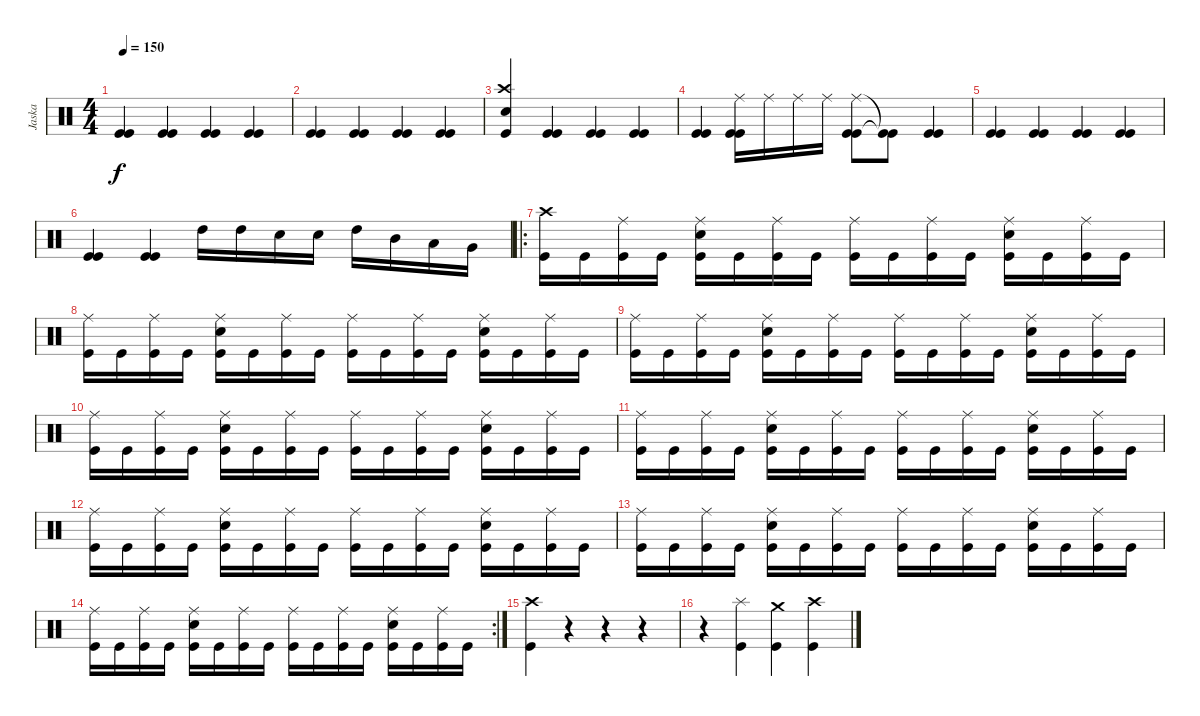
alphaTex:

\track ("Jaska" "Jaska") {instrument percussion}
\staff {score}
\articulation defaults
\ts (4 4)
\tempo 150
\clef neutral
\ks c
("Kick (hit)" "Kick (hit)").4{dy f} ("Kick (hit)" "Kick (hit)").4 ("Kick (hit)" "Kick (hit)").4 ("Kick (hit)" "Kick (hit)").4 |
("Kick (hit)" "Kick (hit)").4 ("Kick (hit)" "Kick (hit)").4 ("Kick (hit)" "Kick (hit)").4 ("Kick (hit)" "Kick (hit)").4 |
("Crash high (hit)" "Snare (hit) 2" "Kick (hit)").4 ("Kick (hit)" "Kick (hit)").4 ("Kick (hit)" "Kick (hit)").4 ("Kick (hit)" "Kick (hit)").4 |
("Kick (hit)" "Kick (hit)").4 ("Ride (middle)" "Kick (hit)" "Kick (hit)").16 "Ride (middle)".16 "Ride (middle)".16 "Ride (middle)".16 ("Ride (middle)" "Kick (hit)" "Kick (hit)").8 ("Kick (hit)"{t} "Kick (hit)"{t}).8 ("Kick (hit)" "Kick (hit)").4 |
("Kick (hit)" "Kick (hit)").4 ("Kick (hit)" "Kick (hit)").4 ("Kick (hit)" "Kick (hit)").4 ("Kick (hit)" "Kick (hit)").4 |
("Kick (hit)" "Kick (hit)").4 ("Kick (hit)" "Kick (hit)").4 "High Tom (hit)".16 "High Tom (hit)".16 "Snare (hit) 2".16 "Snare (hit) 2".16 "High Tom (hit)".16 "Mid Tom (hit)".16 "Low Tom (hit)".16 "Very Low Tom (hit)".16 |
\ro
("Crash high (hit)" "Kick (hit)").16 "Kick (hit)".16 ("Ride (middle)" "Kick (hit)").16 "Kick (hit)".16 ("Ride (middle)" "Snare (hit) 2" "Kick (hit)").16 "Kick (hit)".16 ("Ride (middle)" "Kick (hit)").16 "Kick (hit)".16 ("Ride (middle)" "Kick (hit)").16 "Kick (hit)".16 ("Ride (middle)" "Kick (hit)").16 "Kick (hit)".16 ("Ride (middle)" "Snare (hit) 2" "Kick (hit)").16 "Kick (hit)".16 ("Ride (middle)" "Kick (hit)").16 "Kick (hit)".16 |
("Ride (middle)" "Kick (hit)").16 "Kick (hit)".16 ("Ride (middle)" "Kick (hit)").16 "Kick (hit)".16 ("Ride (middle)" "Snare (hit) 2" "Kick (hit)").16 "Kick (hit)".16 ("Ride (middle)" "Kick (hit)").16 "Kick (hit)".16 ("Ride (middle)" "Kick (hit)").16 "Kick (hit)".16 ("Ride (middle)" "Kick (hit)").16 "Kick (hit)".16 ("Ride (middle)" "Snare (hit) 2" "Kick (hit)").16 "Kick (hit)".16 ("Ride (middle)" "Kick (hit)").16 "Kick (hit)".16 |
("Ride (middle)" "Kick (hit)").16 "Kick (hit)".16 ("Ride (middle)" "Kick (hit)").16 "Kick (hit)".16 ("Ride (middle)" "Snare (hit) 2" "Kick (hit)").16 "Kick (hit)".16 ("Ride (middle)" "Kick (hit)").16 "Kick (hit)".16 ("Ride (middle)" "Kick (hit)").16 "Kick (hit)".16 ("Ride (middle)" "Kick (hit)").16 "Kick (hit)".16 ("Ride (middle)" "Snare (hit) 2" "Kick (hit)").16 "Kick (hit)".16 ("Ride (middle)" "Kick (hit)").16 "Kick (hit)".16 |
("Ride (middle)" "Kick (hit)").16 "Kick (hit)".16 ("Ride (middle)" "Kick (hit)").16 "Kick (hit)".16 ("Ride (middle)" "Snare (hit) 2" "Kick (hit)").16 "Kick (hit)".16 ("Ride (middle)" "Kick (hit)").16 "Kick (hit)".16 ("Ride (middle)" "Kick (hit)").16 "Kick (hit)".16 ("Ride (middle)" "Kick (hit)").16 "Kick (hit)".16 ("Ride (middle)" "Snare (hit) 2" "Kick (hit)").16 "Kick (hit)".16 ("Ride (middle)" "Kick (hit)").16 "Kick (hit)".16 |
("Ride (middle)" "Kick (hit)").16 "Kick (hit)".16 ("Ride (middle)" "Kick (hit)").16 "Kick (hit)".16 ("Ride (middle)" "Snare (hit) 2" "Kick (hit)").16 "Kick (hit)".16 ("Ride (middle)" "Kick (hit)").16 "Kick (hit)".16 ("Ride (middle)" "Kick (hit)").16 "Kick (hit)".16 ("Ride (middle)" "Kick (hit)").16 "Kick (hit)".16 ("Ride (middle)" "Snare (hit) 2" "Kick (hit)").16 "Kick (hit)".16 ("Ride (middle)" "Kick (hit)").16 "Kick (hit)".16 |
("Ride (middle)" "Kick (hit)").16 "Kick (hit)".16 ("Ride (middle)" "Kick (hit)").16 "Kick (hit)".16 ("Ride (middle)" "Snare (hit) 2" "Kick (hit)").16 "Kick (hit)".16 ("Ride (middle)" "Kick (hit)").16 "Kick (hit)".16 ("Ride (middle)" "Kick (hit)").16 "Kick (hit)".16 ("Ride (middle)" "Kick (hit)").16 "Kick (hit)".16 ("Ride (middle)" "Snare (hit) 2" "Kick (hit)").16 "Kick (hit)".16 ("Ride (middle)" "Kick (hit)").16 "Kick (hit)".16 |
("Ride (middle)" "Kick (hit)").16 "Kick (hit)".16 ("Ride (middle)" "Kick (hit)").16 "Kick (hit)".16 ("Ride (middle)" "Snare (hit) 2" "Kick (hit)").16 "Kick (hit)".16 ("Ride (middle)" "Kick (hit)").16 "Kick (hit)".16 ("Ride (middle)" "Kick (hit)").16 "Kick (hit)".16 ("Ride (middle)" "Kick (hit)").16 "Kick (hit)".16 ("Ride (middle)" "Snare (hit) 2" "Kick (hit)").16 "Kick (hit)".16 ("Ride (middle)" "Kick (hit)").16 "Kick (hit)".16 |
\rc 2
("Ride (middle)" "Kick (hit)").16 "Kick (hit)".16 ("Ride (middle)" "Kick (hit)").16 "Kick (hit)".16 ("Ride (middle)" "Snare (hit) 2" "Kick (hit)").16 "Kick (hit)".16 ("Ride (middle)" "Kick (hit)").16 "Kick (hit)".16 ("Ride (middle)" "Kick (hit)").16 "Kick (hit)".16 ("Ride (middle)" "Kick (hit)").16 "Kick (hit)".16 ("Ride (middle)" "Snare (hit) 2" "Kick (hit)").16 "Kick (hit)".16 ("Ride (middle)" "Kick (hit)").16 "Kick (hit)".16 |
("Crash high (hit)" "Kick (hit)").4 r.4 r.4 r.4 |
r.4 ("Splash (hit)" "Kick (hit)").4 ("Crash medium (hit)" "Kick (hit)").4 ("Crash high (hit)" "Kick (hit)").4
